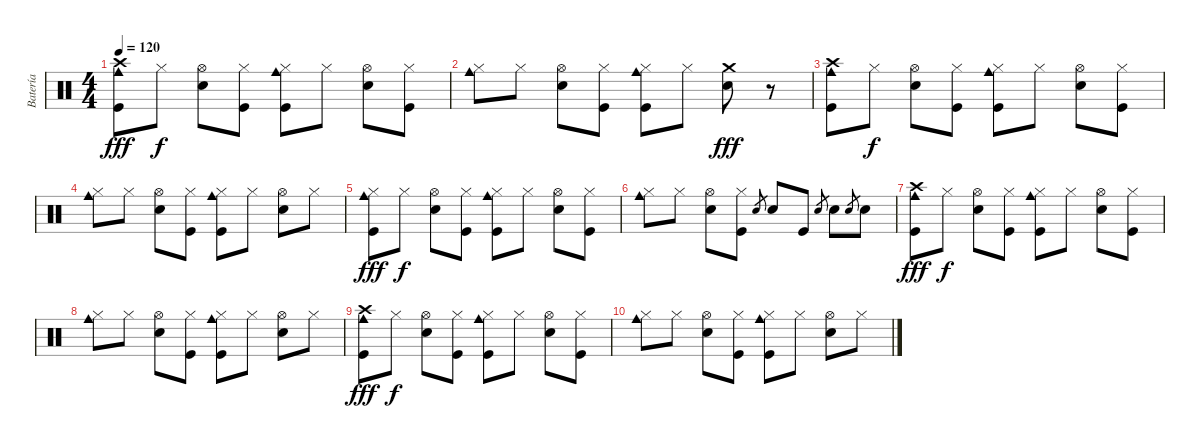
\track ("Batería" "Batería") {instrument percussion}
\staff {score}
\articulation defaults
\ts (4 4)
\tempo 120
\clef neutral
\ks c
("Crash high (hit)" "Cowbell medium (hit)" "Kick (hit)").8{dy fff volume 6} "Hi-Hat (closed)".8{dy f} ("Hi-Hat (open)" "Electric Snare (hit)").8 ("Hi-Hat (closed)" "Kick (hit)").8 ("Hi-Hat (closed)" "Cowbell medium (hit)" "Kick (hit)").8 "Hi-Hat (closed)".8 ("Hi-Hat (open)" "Electric Snare (hit)").8 ("Hi-Hat (closed)" "Kick (hit)").8 |
("Hi-Hat (closed)" "Cowbell medium (hit)").8 "Hi-Hat (closed)".8 ("Hi-Hat (open)" "Electric Snare (hit)").8 ("Hi-Hat (closed)" "Kick (hit)").8 ("Hi-Hat (closed)" "Cowbell medium (hit)" "Kick (hit)").8 "Hi-Hat (closed)".8 ("Crash medium (hit)" "Electric Snare (hit)").8{dy fff} r.8 |
("Crash high (hit)" "Cowbell medium (hit)" "Kick (hit)").8 "Hi-Hat (closed)".8{dy f} ("Hi-Hat (open)" "Electric Snare (hit)").8 ("Hi-Hat (closed)" "Kick (hit)").8 ("Hi-Hat (closed)" "Cowbell medium (hit)" "Kick (hit)").8 "Hi-Hat (closed)".8 ("Hi-Hat (open)" "Electric Snare (hit)").8 ("Hi-Hat (closed)" "Kick (hit)").8 |
("Hi-Hat (closed)" "Cowbell medium (hit)").8 "Hi-Hat (closed)".8 ("Hi-Hat (open)" "Electric Snare (hit)").8 ("Hi-Hat (closed)" "Kick (hit)").8 ("Hi-Hat (closed)" "Cowbell medium (hit)" "Kick (hit)").8 "Hi-Hat (closed)".8 ("Hi-Hat (open)" "Electric Snare (hit)").8 "Hi-Hat (closed)".8 |
("Hi-Hat (closed)" "Cowbell medium (hit)" "Kick (hit)").8{dy fff volume 0} "Hi-Hat (closed)".8{dy f} ("Hi-Hat (open)" "Electric Snare (hit)").8 ("Hi-Hat (closed)" "Kick (hit)").8 ("Hi-Hat (closed)" "Cowbell medium (hit)" "Kick (hit)").8 "Hi-Hat (closed)".8 ("Hi-Hat (open)" "Electric Snare (hit)").8 ("Hi-Hat (closed)" "Kick (hit)").8 |
("Hi-Hat (closed)" "Cowbell medium (hit)").8 "Hi-Hat (closed)".8 ("Hi-Hat (open)" "Electric Snare (hit)").8 ("Hi-Hat (closed)" "Kick (hit)").8 "Electric Snare (hit)".8{gr} "Electric Snare (hit)".8 "Kick (hit)".8 "Electric Snare (hit)".8{gr} "Electric Snare (hit)".8 "Electric Snare (hit)".8{gr} "Electric Snare (hit)".8 |
("Crash high (hit)" "Cowbell medium (hit)" "Kick (hit)").8{dy fff} "Hi-Hat (closed)".8{dy f} ("Hi-Hat (open)" "Electric Snare (hit)").8 ("Hi-Hat (closed)" "Kick (hit)").8 ("Hi-Hat (closed)" "Cowbell medium (hit)" "Kick (hit)").8 "Hi-Hat (closed)".8 ("Hi-Hat (open)" "Electric Snare (hit)").8 ("Hi-Hat (closed)" "Kick (hit)").8 |
("Hi-Hat (closed)" "Cowbell medium (hit)").8 "Hi-Hat (closed)".8 ("Hi-Hat (open)" "Electric Snare (hit)").8 ("Hi-Hat (closed)" "Kick (hit)").8 ("Hi-Hat (closed)" "Cowbell medium (hit)" "Kick (hit)").8 "Hi-Hat (closed)".8 ("Hi-Hat (open)" "Electric Snare (hit)").8 "Hi-Hat (closed)".8 |
("Crash high (hit)" "Cowbell medium (hit)" "Kick (hit)").8{dy fff} "Hi-Hat (closed)".8{dy f} ("Hi-Hat (open)" "Electric Snare (hit)").8 ("Hi-Hat (closed)" "Kick (hit)").8 ("Hi-Hat (closed)" "Cowbell medium (hit)" "Kick (hit)").8 "Hi-Hat (closed)".8 ("Hi-Hat (open)" "Electric Snare (hit)").8 ("Hi-Hat (closed)" "Kick (hit)").8 |
("Hi-Hat (closed)" "Cowbell medium (hit)").8 "Hi-Hat (closed)".8 ("Hi-Hat (open)" "Electric Snare (hit)").8 ("Hi-Hat (closed)" "Kick (hit)").8 ("Hi-Hat (closed)" "Cowbell medium (hit)" "Kick (hit)").8 "Hi-Hat (closed)".8 ("Hi-Hat (open)" "Electric Snare (hit)").8 "Hi-Hat (closed)".8
